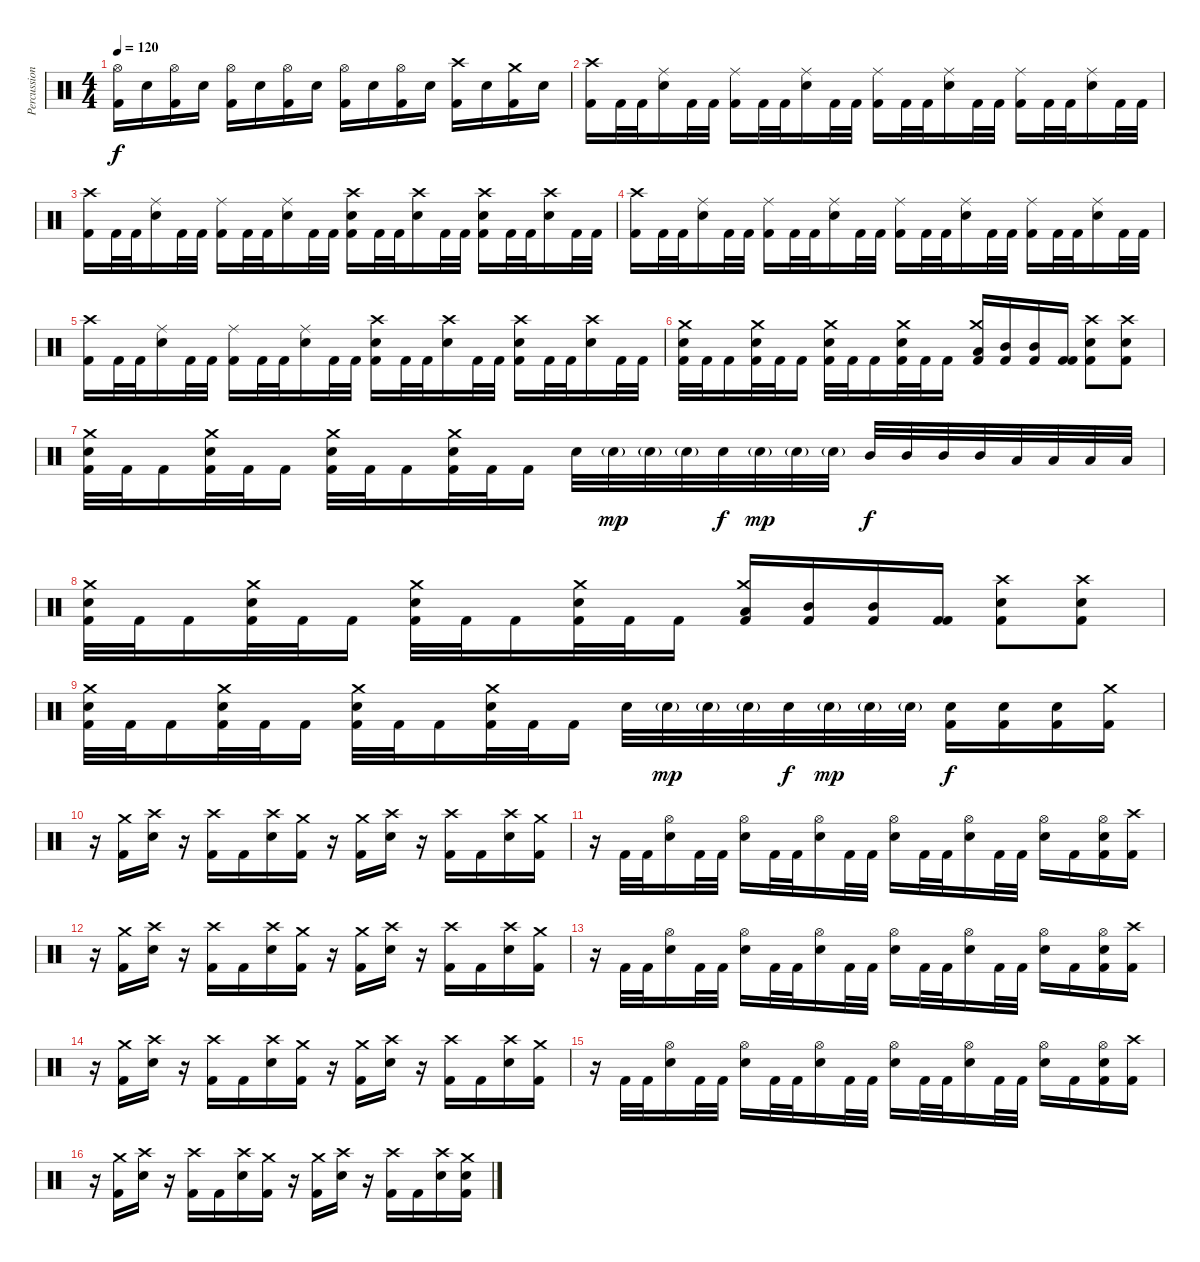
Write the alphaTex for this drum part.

\track ("Percussion" "Percussion") {instrument percussion}
\staff {score}
\articulation defaults
\ts (4 4)
\tempo 120
\clef neutral
\ks c
("Hi-Hat (open)" "Kick (hit) 2").16{dy f} "Electric Snare (hit)".16 ("Hi-Hat (open)" "Kick (hit) 2").16 "Electric Snare (hit)".16 ("Hi-Hat (open)" "Kick (hit) 2").16 "Electric Snare (hit)".16 ("Hi-Hat (open)" "Kick (hit) 2").16 "Electric Snare (hit)".16 ("Hi-Hat (open)" "Kick (hit) 2").16 "Electric Snare (hit)".16 ("Hi-Hat (open)" "Kick (hit) 2").16 "Electric Snare (hit)".16 ("Crash high (hit)" "Kick (hit) 2").16 "Electric Snare (hit)".16 ("Crash medium (hit)" "Kick (hit) 2").16 "Electric Snare (hit)".16 |
("Crash high (hit)" "Kick (hit) 2").16 "Kick (hit) 2".32 "Kick (hit) 2".32 ("Ride (middle)" "Electric Snare (hit)").16 "Kick (hit) 2".32 "Kick (hit) 2".32 ("Ride (middle)" "Kick (hit) 2").16 "Kick (hit) 2".32 "Kick (hit) 2".32 ("Ride (middle)" "Electric Snare (hit)").16 "Kick (hit) 2".32 "Kick (hit) 2".32 ("Ride (middle)" "Kick (hit) 2").16 "Kick (hit) 2".32 "Kick (hit) 2".32 ("Ride (middle)" "Electric Snare (hit)").16 "Kick (hit) 2".32 "Kick (hit) 2".32 ("Ride (middle)" "Kick (hit) 2").16 "Kick (hit) 2".32 "Kick (hit) 2".32 ("Ride (middle)" "Electric Snare (hit)").16 "Kick (hit) 2".32 "Kick (hit) 2".32 |
("Crash high (hit)" "Kick (hit) 2").16 "Kick (hit) 2".32 "Kick (hit) 2".32 ("Ride (middle)" "Electric Snare (hit)").16 "Kick (hit) 2".32 "Kick (hit) 2".32 ("Ride (middle)" "Kick (hit) 2").16 "Kick (hit) 2".32 "Kick (hit) 2".32 ("Ride (middle)" "Electric Snare (hit)").16 "Kick (hit) 2".32 "Kick (hit) 2".32 ("Crash high (hit)" "Electric Snare (hit)" "Kick (hit) 2").16 "Kick (hit) 2".32 "Kick (hit) 2".32 ("Crash high (hit)" "Electric Snare (hit)").16 "Kick (hit) 2".32 "Kick (hit) 2".32 ("Crash high (hit)" "Electric Snare (hit)" "Kick (hit) 2").16 "Kick (hit) 2".32 "Kick (hit) 2".32 ("Crash high (hit)" "Electric Snare (hit)").16 "Kick (hit) 2".32 "Kick (hit) 2".32 |
("Crash high (hit)" "Kick (hit) 2").16 "Kick (hit) 2".32 "Kick (hit) 2".32 ("Ride (middle)" "Electric Snare (hit)").16 "Kick (hit) 2".32 "Kick (hit) 2".32 ("Ride (middle)" "Kick (hit) 2").16 "Kick (hit) 2".32 "Kick (hit) 2".32 ("Ride (middle)" "Electric Snare (hit)").16 "Kick (hit) 2".32 "Kick (hit) 2".32 ("Ride (middle)" "Kick (hit) 2").16 "Kick (hit) 2".32 "Kick (hit) 2".32 ("Ride (middle)" "Electric Snare (hit)").16 "Kick (hit) 2".32 "Kick (hit) 2".32 ("Ride (middle)" "Kick (hit) 2").16 "Kick (hit) 2".32 "Kick (hit) 2".32 ("Ride (middle)" "Electric Snare (hit)").16 "Kick (hit) 2".32 "Kick (hit) 2".32 |
("Crash high (hit)" "Kick (hit) 2").16 "Kick (hit) 2".32 "Kick (hit) 2".32 ("Ride (middle)" "Electric Snare (hit)").16 "Kick (hit) 2".32 "Kick (hit) 2".32 ("Ride (middle)" "Kick (hit) 2").16 "Kick (hit) 2".32 "Kick (hit) 2".32 ("Ride (middle)" "Electric Snare (hit)").16 "Kick (hit) 2".32 "Kick (hit) 2".32 ("Crash high (hit)" "Electric Snare (hit)" "Kick (hit) 2").16 "Kick (hit) 2".32 "Kick (hit) 2".32 ("Crash high (hit)" "Electric Snare (hit)").16 "Kick (hit) 2".32 "Kick (hit) 2".32 ("Crash high (hit)" "Electric Snare (hit)" "Kick (hit) 2").16 "Kick (hit) 2".32 "Kick (hit) 2".32 ("Crash high (hit)" "Electric Snare (hit)").16 "Kick (hit) 2".32 "Kick (hit) 2".32 |
("Crash medium (hit)" "Electric Snare (hit)" "Kick (hit) 2").32 "Kick (hit) 2".32 "Kick (hit) 2".16 ("Crash medium (hit)" "Electric Snare (hit)" "Kick (hit) 2").32 "Kick (hit) 2".32 "Kick (hit) 2".16 ("Crash medium (hit)" "Electric Snare (hit)" "Kick (hit) 2").32 "Kick (hit) 2".32 "Kick (hit) 2".16 ("Crash medium (hit)" "Electric Snare (hit)" "Kick (hit) 2").32 "Kick (hit) 2".32 "Kick (hit) 2".16 ("Crash medium (hit)" "Low Tom (hit)" "Kick (hit) 2").16 ("Mid Tom (hit)" "Kick (hit) 2").16 ("Mid Tom (hit)" "Kick (hit) 2").16 ("Kick (hit) 2" "Kick (hit) 2").16 ("Crash high (hit)" "Electric Snare (hit)" "Kick (hit) 2").8 ("Crash high (hit)" "Electric Snare (hit)" "Kick (hit) 2").8 |
("Crash medium (hit)" "Electric Snare (hit)" "Kick (hit) 2").32 "Kick (hit) 2".32 "Kick (hit) 2".16 ("Crash medium (hit)" "Electric Snare (hit)" "Kick (hit) 2").32 "Kick (hit) 2".32 "Kick (hit) 2".16 ("Crash medium (hit)" "Electric Snare (hit)" "Kick (hit) 2").32 "Kick (hit) 2".32 "Kick (hit) 2".16 ("Crash medium (hit)" "Electric Snare (hit)" "Kick (hit) 2").32 "Kick (hit) 2".32 "Kick (hit) 2".16 "Electric Snare (hit)".32 "Electric Snare (hit)"{g}.32{dy mp} "Electric Snare (hit)"{g}.32 "Electric Snare (hit)"{g}.32 "Electric Snare (hit)".32{dy f} "Electric Snare (hit)"{g}.32{dy mp} "Electric Snare (hit)"{g}.32 "Electric Snare (hit)"{g}.32 "Mid Tom (hit)".32{dy f} "Mid Tom (hit)".32 "Mid Tom (hit)".32 "Mid Tom (hit)".32 "Low Tom (hit)".32 "Low Tom (hit)".32 "Low Tom (hit)".32 "Low Tom (hit)".32 |
("Crash medium (hit)" "Electric Snare (hit)" "Kick (hit) 2").32 "Kick (hit) 2".32 "Kick (hit) 2".16 ("Crash medium (hit)" "Electric Snare (hit)" "Kick (hit) 2").32 "Kick (hit) 2".32 "Kick (hit) 2".16 ("Crash medium (hit)" "Electric Snare (hit)" "Kick (hit) 2").32 "Kick (hit) 2".32 "Kick (hit) 2".16 ("Crash medium (hit)" "Electric Snare (hit)" "Kick (hit) 2").32 "Kick (hit) 2".32 "Kick (hit) 2".16 ("Crash medium (hit)" "Low Tom (hit)" "Kick (hit) 2").16 ("Mid Tom (hit)" "Kick (hit) 2").16 ("Mid Tom (hit)" "Kick (hit) 2").16 ("Kick (hit) 2" "Kick (hit) 2").16 ("Crash high (hit)" "Electric Snare (hit)" "Kick (hit) 2").8 ("Crash high (hit)" "Electric Snare (hit)" "Kick (hit) 2").8 |
("Crash medium (hit)" "Electric Snare (hit)" "Kick (hit) 2").32 "Kick (hit) 2".32 "Kick (hit) 2".16 ("Crash medium (hit)" "Electric Snare (hit)" "Kick (hit) 2").32 "Kick (hit) 2".32 "Kick (hit) 2".16 ("Crash medium (hit)" "Electric Snare (hit)" "Kick (hit) 2").32 "Kick (hit) 2".32 "Kick (hit) 2".16 ("Crash medium (hit)" "Electric Snare (hit)" "Kick (hit) 2").32 "Kick (hit) 2".32 "Kick (hit) 2".16 "Electric Snare (hit)".32 "Electric Snare (hit)"{g}.32{dy mp} "Electric Snare (hit)"{g}.32 "Electric Snare (hit)"{g}.32 "Electric Snare (hit)".32{dy f} "Electric Snare (hit)"{g}.32{dy mp} "Electric Snare (hit)"{g}.32 "Electric Snare (hit)"{g}.32 ("Electric Snare (hit)" "Kick (hit) 2").16{dy f} ("Electric Snare (hit)" "Kick (hit) 2").16 ("Electric Snare (hit)" "Kick (hit) 2").16 ("Crash medium (hit)" "Kick (hit) 2").16 |
r.16 ("Crash medium (hit)" "Kick (hit) 2").16 ("Crash high (hit)" "Electric Snare (hit)").16 r.16 ("Crash high (hit)" "Kick (hit) 2").16 "Kick (hit) 2".16 ("Crash high (hit)" "Electric Snare (hit)").16 ("Crash medium (hit)" "Kick (hit) 2").16 r.16 ("Crash medium (hit)" "Kick (hit) 2").16 ("Crash high (hit)" "Electric Snare (hit)").16 r.16 ("Crash high (hit)" "Kick (hit) 2").16 "Kick (hit) 2".16 ("Crash high (hit)" "Electric Snare (hit)").16 ("Crash medium (hit)" "Kick (hit) 2").16 |
r.16 "Kick (hit) 2".32 "Kick (hit) 2".32 ("Hi-Hat (open)" "Electric Snare (hit)").16 "Kick (hit) 2".32 "Kick (hit) 2".32 ("Hi-Hat (open)" "Electric Snare (hit)").16 "Kick (hit) 2".32 "Kick (hit) 2".32 ("Hi-Hat (open)" "Electric Snare (hit)").16 "Kick (hit) 2".32 "Kick (hit) 2".32 ("Hi-Hat (open)" "Electric Snare (hit)").16 "Kick (hit) 2".32 "Kick (hit) 2".32 ("Hi-Hat (open)" "Electric Snare (hit)").16 "Kick (hit) 2".32 "Kick (hit) 2".32 ("Hi-Hat (open)" "Electric Snare (hit)").16 "Kick (hit) 2".16 ("Hi-Hat (open)" "Electric Snare (hit)" "Kick (hit) 2").16 ("Crash high (hit)" "Kick (hit) 2").16 |
r.16 ("Crash medium (hit)" "Kick (hit) 2").16 ("Crash high (hit)" "Electric Snare (hit)").16 r.16 ("Crash high (hit)" "Kick (hit) 2").16 "Kick (hit) 2".16 ("Crash high (hit)" "Electric Snare (hit)").16 ("Crash medium (hit)" "Kick (hit) 2").16 r.16 ("Crash medium (hit)" "Kick (hit) 2").16 ("Crash high (hit)" "Electric Snare (hit)").16 r.16 ("Crash high (hit)" "Kick (hit) 2").16 "Kick (hit) 2".16 ("Crash high (hit)" "Electric Snare (hit)").16 ("Crash medium (hit)" "Kick (hit) 2").16 |
r.16 "Kick (hit) 2".32 "Kick (hit) 2".32 ("Hi-Hat (open)" "Electric Snare (hit)").16 "Kick (hit) 2".32 "Kick (hit) 2".32 ("Hi-Hat (open)" "Electric Snare (hit)").16 "Kick (hit) 2".32 "Kick (hit) 2".32 ("Hi-Hat (open)" "Electric Snare (hit)").16 "Kick (hit) 2".32 "Kick (hit) 2".32 ("Hi-Hat (open)" "Electric Snare (hit)").16 "Kick (hit) 2".32 "Kick (hit) 2".32 ("Hi-Hat (open)" "Electric Snare (hit)").16 "Kick (hit) 2".32 "Kick (hit) 2".32 ("Hi-Hat (open)" "Electric Snare (hit)").16 "Kick (hit) 2".16 ("Hi-Hat (open)" "Electric Snare (hit)" "Kick (hit) 2").16 ("Crash high (hit)" "Kick (hit) 2").16 |
r.16 ("Crash medium (hit)" "Kick (hit) 2").16 ("Crash high (hit)" "Electric Snare (hit)").16 r.16 ("Crash high (hit)" "Kick (hit) 2").16 "Kick (hit) 2".16 ("Crash high (hit)" "Electric Snare (hit)").16 ("Crash medium (hit)" "Kick (hit) 2").16 r.16 ("Crash medium (hit)" "Kick (hit) 2").16 ("Crash high (hit)" "Electric Snare (hit)").16 r.16 ("Crash high (hit)" "Kick (hit) 2").16 "Kick (hit) 2".16 ("Crash high (hit)" "Electric Snare (hit)").16 ("Crash medium (hit)" "Kick (hit) 2").16 |
r.16 "Kick (hit) 2".32 "Kick (hit) 2".32 ("Hi-Hat (open)" "Electric Snare (hit)").16 "Kick (hit) 2".32 "Kick (hit) 2".32 ("Hi-Hat (open)" "Electric Snare (hit)").16 "Kick (hit) 2".32 "Kick (hit) 2".32 ("Hi-Hat (open)" "Electric Snare (hit)").16 "Kick (hit) 2".32 "Kick (hit) 2".32 ("Hi-Hat (open)" "Electric Snare (hit)").16 "Kick (hit) 2".32 "Kick (hit) 2".32 ("Hi-Hat (open)" "Electric Snare (hit)").16 "Kick (hit) 2".32 "Kick (hit) 2".32 ("Hi-Hat (open)" "Electric Snare (hit)").16 "Kick (hit) 2".16 ("Hi-Hat (open)" "Electric Snare (hit)" "Kick (hit) 2").16 ("Crash high (hit)" "Kick (hit) 2").16 |
r.16 ("Crash medium (hit)" "Kick (hit) 2").16 ("Crash high (hit)" "Electric Snare (hit)").16 r.16 ("Crash high (hit)" "Kick (hit) 2").16 "Kick (hit) 2".16 ("Crash high (hit)" "Electric Snare (hit)").16 ("Crash medium (hit)" "Kick (hit) 2").16 r.16 ("Crash medium (hit)" "Kick (hit) 2").16 ("Crash high (hit)" "Electric Snare (hit)").16 r.16 ("Crash high (hit)" "Kick (hit) 2").16 "Kick (hit) 2".16 ("Crash high (hit)" "Electric Snare (hit)").16 ("Crash medium (hit)" "Electric Snare (hit)" "Kick (hit) 2").16
